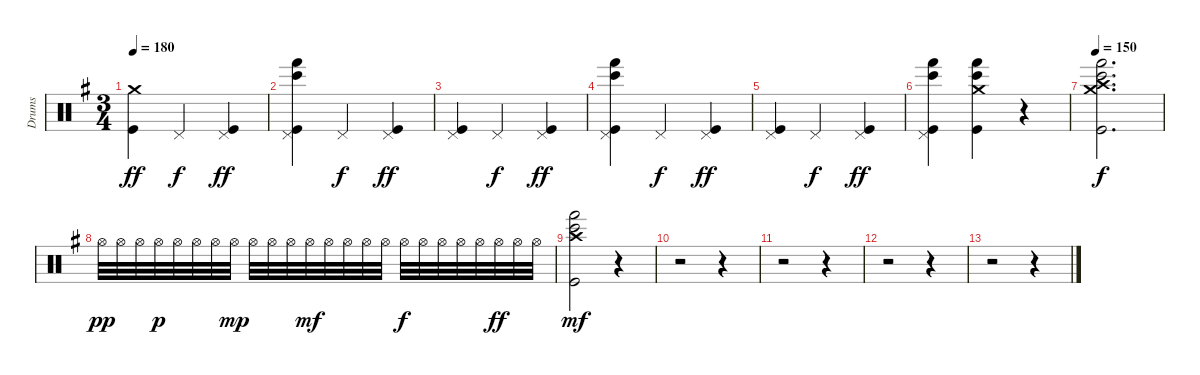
\track ("Drums" "Drums") {instrument percussion bank 24}
\staff {score}
\articulation defaults
\ts (3 4)
\tempo 180
\clef neutral
\ks eminor
("Crash medium (hit)" "Kick (hit)").4{dy ff} "Pedal Hi-Hat (hit)".4{dy f} ("Pedal Hi-Hat (hit)" "Kick (hit)").4{dy ff} |
("Pedal Hi-Hat (hit)" "Bongo High (hit)" "Hand (hit)" "Kick (hit)").4 "Pedal Hi-Hat (hit)".4{dy f} ("Pedal Hi-Hat (hit)" "Kick (hit)").4{dy ff} |
("Pedal Hi-Hat (hit)" "Kick (hit)").4 "Pedal Hi-Hat (hit)".4{dy f} ("Pedal Hi-Hat (hit)" "Kick (hit)").4{dy ff} |
("Pedal Hi-Hat (hit)" "Bongo High (hit)" "Hand (hit)" "Kick (hit)").4 "Pedal Hi-Hat (hit)".4{dy f} ("Pedal Hi-Hat (hit)" "Kick (hit)").4{dy ff} |
("Pedal Hi-Hat (hit)" "Kick (hit)").4 "Pedal Hi-Hat (hit)".4{dy f} ("Pedal Hi-Hat (hit)" "Kick (hit)").4{dy ff} |
("Pedal Hi-Hat (hit)" "Bongo High (hit)" "Hand (hit)" "Kick (hit)").4 ("Crash medium (hit)" "Bongo High (hit)" "Hand (hit)" "Kick (hit)").4 r.4 |
\tempo 150
("Crash medium (hit)" "Crash high (hit)" "Bongo High (hit)" "Hand (hit)" "Kick (hit)").2{d dy f} |
"Hi-Hat (open)".32{dy pp} "Hi-Hat (open)".32 "Hi-Hat (open)".32 "Hi-Hat (open)".32{dy p} "Hi-Hat (open)".32 "Hi-Hat (open)".32 "Hi-Hat (open)".32 "Hi-Hat (open)".32{dy mp} "Hi-Hat (open)".32 "Hi-Hat (open)".32 "Hi-Hat (open)".32 "Hi-Hat (open)".32{dy mf} "Hi-Hat (open)".32 "Hi-Hat (open)".32 "Hi-Hat (open)".32 "Hi-Hat (open)".32 "Hi-Hat (open)".32{dy f} "Hi-Hat (open)".32 "Hi-Hat (open)".32 "Hi-Hat (open)".32 "Hi-Hat (open)".32 "Hi-Hat (open)".32{dy ff} "Hi-Hat (open)".32 "Hi-Hat (open)".32 |
("Crash high (hit)" "Bongo High (hit)" "Hand (hit)" "Kick (hit)").2{dy mf} r.4 |
r.2 r.4 |
r.2 r.4 |
r.2 r.4 |
r.2 r.4
